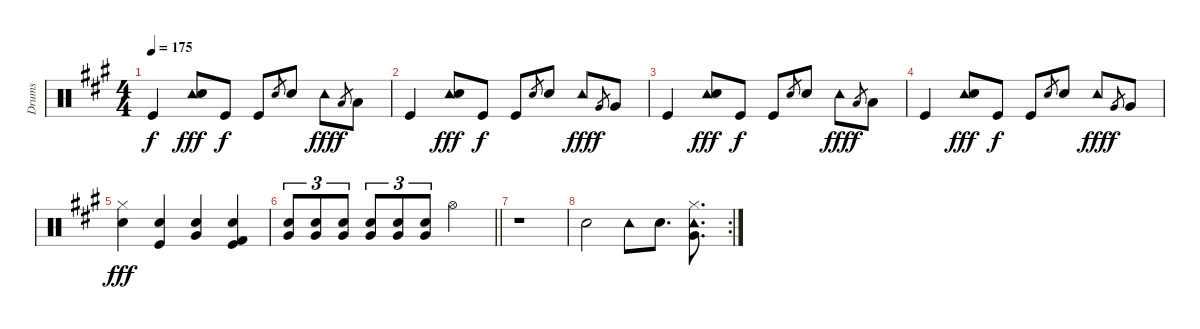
\track ("Drums" "Drums") {instrument percussion}
\staff {score}
\articulation defaults
\ts (4 4)
\tempo 175
\clef neutral
\ks a "Kick (hit)".4{dy f}
("Tambourine (hit)" "Snare (hit) 2").8{dy fff} "Kick (hit)".8{dy f} "Kick (hit)".8 "Snare (hit) 2".8{gr} "Snare (hit) 2".8 "Tambourine (hit)".8{dy fff} "Low Tom (hit)".8{gr dy f} "Low Tom (hit)".8 |
"Kick (hit)".4 ("Tambourine (hit)" "Snare (hit) 2").8{dy fff} "Kick (hit)".8{dy f} "Kick (hit)".8 "Snare (hit) 2".8{gr} "Snare (hit) 2".8 "Tambourine (hit)".8{dy fff} "Very Low Tom (hit)".8{gr dy f} "Very Low Tom (hit)".8 |
"Kick (hit)".4 ("Tambourine (hit)" "Snare (hit) 2").8{dy fff} "Kick (hit)".8{dy f} "Kick (hit)".8 "Snare (hit) 2".8{gr} "Snare (hit) 2".8 "Tambourine (hit)".8{dy fff} "Low Tom (hit)".8{gr dy f} "Low Tom (hit)".8 |
"Kick (hit)".4 ("Tambourine (hit)" "Snare (hit) 2").8{dy fff} "Kick (hit)".8{dy f} "Kick (hit)".8 "Snare (hit) 2".8{gr} "Snare (hit) 2".8 "Tambourine (hit)".8{dy fff} "Very Low Tom (hit)".8{gr dy f} "Very Low Tom (hit)".8 |
("Hi-Hat (closed)" "Snare (hit) 2").4{dy fff} ("Snare (hit) 2" "Kick (hit)").4 ("Very Low Tom (hit)" "Snare (hit) 2").4 ("Kick (hit) 2" "Snare (hit) 2" "Kick (hit)").4 |
\barLineRight lightlight
("Snare (hit) 2" "Very Low Tom (hit)").8{tu (3 2)} ("Snare (hit) 2" "Very Low Tom (hit)").8{tu (3 2)} ("Snare (hit) 2" "Very Low Tom (hit)").8{tu (3 2)} ("Snare (hit) 2" "Very Low Tom (hit)").8{tu (3 2)} ("Snare (hit) 2" "Very Low Tom (hit)").8{tu (3 2)} ("Snare (hit) 2" "Very Low Tom (hit)").8{tu (3 2)} "Hi-Hat (open)".2 |
r.1 |
\rc 2 "Snare (hit) 2".2 "Tambourine (hit)".8 "Snare (hit) 2".8{d}
("Very Low Tom (hit)" "Hi-Hat (closed)" "Tambourine (hit)").8{d}
